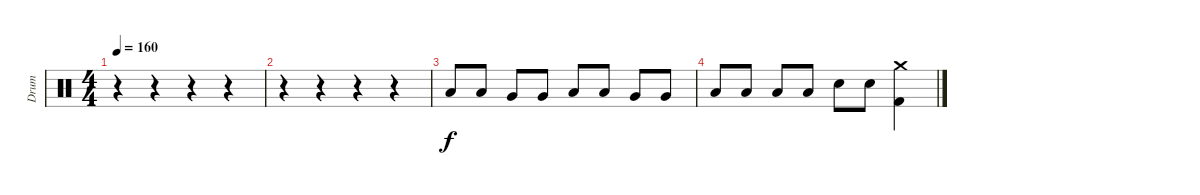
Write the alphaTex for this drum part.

\track ("Drum" "Drum") {instrument percussion}
\staff {score}
\articulation defaults
\ts (4 4)
\tempo 160
\clef neutral
\ks c
r.4{dy f} r.4 r.4 r.4 |
r.4 r.4 r.4 r.4 |
"Low Tom (hit)".8 "Low Tom (hit)".8 "Very Low Tom (hit)".8 "Very Low Tom (hit)".8 "Low Floor Tom (hit)".8 "Low Floor Tom (hit)".8 "Very Low Tom (hit)".8 "Very Low Tom (hit)".8 |
"Low Tom (hit)".8 "Low Tom (hit)".8 "Low Floor Tom (hit)".8 "Low Floor Tom (hit)".8 "Snare (hit) 2".8 "Snare (hit) 2".8 ("Crash medium (hit)" "Kick (hit) 2").4
